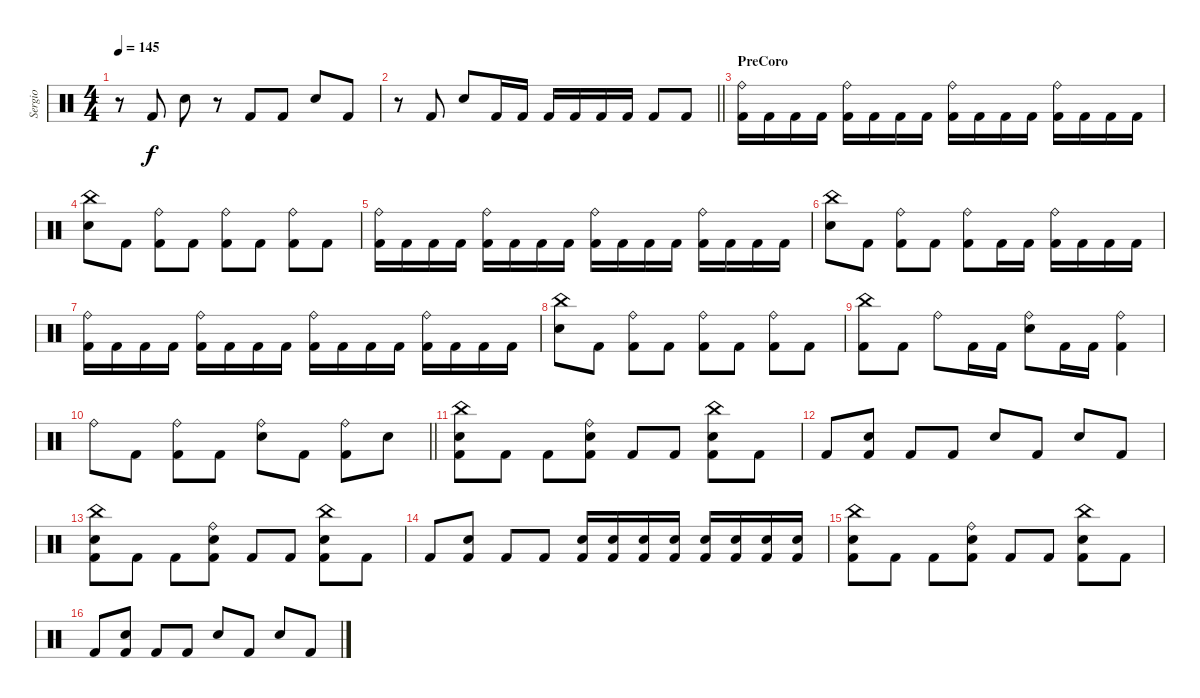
\track ("Sergio" "Sergio") {instrument percussion}
\staff {score}
\articulation defaults
\ts (4 4)
\tempo 145
\clef neutral
\ks c
r.8{dy f} "Kick (hit) 2".8 "Electric Snare (hit)".8 r.8 "Kick (hit) 2".8 "Kick (hit) 2".8 "Electric Snare (hit)".8 "Kick (hit) 2".8 |
\barLineRight lightlight
r.8 "Kick (hit) 2".8 "Electric Snare (hit)".8 "Kick (hit) 2".16 "Kick (hit) 2".16 "Kick (hit) 2".16 "Kick (hit) 2".16 "Kick (hit) 2".16 "Kick (hit) 2".16 "Kick (hit) 2".8 "Kick (hit) 2".8 |
\section ("" "PreCoro")
("Ride (bell)" "Kick (hit) 2").16 "Kick (hit) 2".16 "Kick (hit) 2".16 "Kick (hit) 2".16 ("Ride (bell)" "Kick (hit) 2").16 "Kick (hit) 2".16 "Kick (hit) 2".16 "Kick (hit) 2".16 ("Ride (bell)" "Kick (hit) 2").16 "Kick (hit) 2".16 "Kick (hit) 2".16 "Kick (hit) 2".16 ("Ride (bell)" "Kick (hit) 2").16 "Kick (hit) 2".16 "Kick (hit) 2".16 "Kick (hit) 2".16 |
("China (hit)" "Electric Snare (hit)").8 "Kick (hit) 2".8 ("Ride (bell)" "Kick (hit) 2").8 "Kick (hit) 2".8 ("Ride (bell)" "Kick (hit) 2").8 "Kick (hit) 2".8 ("Ride (bell)" "Kick (hit) 2").8 "Kick (hit) 2".8 |
("Ride (bell)" "Kick (hit) 2").16 "Kick (hit) 2".16 "Kick (hit) 2".16 "Kick (hit) 2".16 ("Ride (bell)" "Kick (hit) 2").16 "Kick (hit) 2".16 "Kick (hit) 2".16 "Kick (hit) 2".16 ("Ride (bell)" "Kick (hit) 2").16 "Kick (hit) 2".16 "Kick (hit) 2".16 "Kick (hit) 2".16 ("Ride (bell)" "Kick (hit) 2").16 "Kick (hit) 2".16 "Kick (hit) 2".16 "Kick (hit) 2".16 |
("China (hit)" "Electric Snare (hit)").8 "Kick (hit) 2".8 ("Ride (bell)" "Kick (hit) 2").8 "Kick (hit) 2".8 ("Ride (bell)" "Kick (hit) 2").8 "Kick (hit) 2".16 "Kick (hit) 2".16 ("Ride (bell)" "Kick (hit) 2").16 "Kick (hit) 2".16 "Kick (hit) 2".16 "Kick (hit) 2".16 |
("Ride (bell)" "Kick (hit) 2").16 "Kick (hit) 2".16 "Kick (hit) 2".16 "Kick (hit) 2".16 ("Ride (bell)" "Kick (hit) 2").16 "Kick (hit) 2".16 "Kick (hit) 2".16 "Kick (hit) 2".16 ("Ride (bell)" "Kick (hit) 2").16 "Kick (hit) 2".16 "Kick (hit) 2".16 "Kick (hit) 2".16 ("Ride (bell)" "Kick (hit) 2").16 "Kick (hit) 2".16 "Kick (hit) 2".16 "Kick (hit) 2".16 |
("China (hit)" "Electric Snare (hit)").8 "Kick (hit) 2".8 ("Ride (bell)" "Kick (hit) 2").8 "Kick (hit) 2".8 ("Ride (bell)" "Kick (hit) 2").8 "Kick (hit) 2".8 ("Ride (bell)" "Kick (hit) 2").8 "Kick (hit) 2".8 |
("China (hit)" "Kick (hit) 2").8 "Kick (hit) 2".8 "Ride (bell)".8 "Kick (hit) 2".16 "Kick (hit) 2".16 ("Ride (bell)" "Electric Snare (hit)").8 "Kick (hit) 2".16 "Kick (hit) 2".16 ("Ride (bell)" "Kick (hit) 2").4 |
\barLineRight lightlight "Ride (bell)".8 "Kick (hit) 2".8
("Ride (bell)" "Kick (hit) 2").8 "Kick (hit) 2".8 ("Ride (bell)" "Electric Snare (hit)").8 "Kick (hit) 2".8 ("Ride (bell)" "Kick (hit) 2").8 "Electric Snare (hit)".8 |
("China (hit)" "Electric Snare (hit)" "Kick (hit) 2").8 "Kick (hit) 2".8 "Kick (hit) 2".8 ("Ride (bell)" "Electric Snare (hit)" "Kick (hit) 2").8 "Kick (hit) 2".8 "Kick (hit) 2".8 ("China (hit)" "Electric Snare (hit)" "Kick (hit) 2").8 "Kick (hit) 2".8 |
"Kick (hit) 2".8 ("Electric Snare (hit)" "Kick (hit) 2").8 "Kick (hit) 2".8 "Kick (hit) 2".8 "Electric Snare (hit)".8 "Kick (hit) 2".8 "Electric Snare (hit)".8 "Kick (hit) 2".8 |
("China (hit)" "Electric Snare (hit)" "Kick (hit) 2").8 "Kick (hit) 2".8 "Kick (hit) 2".8 ("Ride (bell)" "Electric Snare (hit)" "Kick (hit) 2").8 "Kick (hit) 2".8 "Kick (hit) 2".8 ("China (hit)" "Electric Snare (hit)" "Kick (hit) 2").8 "Kick (hit) 2".8 |
"Kick (hit) 2".8 ("Electric Snare (hit)" "Kick (hit) 2").8 "Kick (hit) 2".8 "Kick (hit) 2".8 ("Electric Snare (hit)" "Kick (hit) 2").16 ("Electric Snare (hit)" "Kick (hit) 2").16 ("Electric Snare (hit)" "Kick (hit) 2").16 ("Electric Snare (hit)" "Kick (hit) 2").16 ("Electric Snare (hit)" "Kick (hit) 2").16 ("Electric Snare (hit)" "Kick (hit) 2").16 ("Electric Snare (hit)" "Kick (hit) 2").16 ("Electric Snare (hit)" "Kick (hit) 2").16 |
("China (hit)" "Electric Snare (hit)" "Kick (hit) 2").8 "Kick (hit) 2".8 "Kick (hit) 2".8 ("Ride (bell)" "Electric Snare (hit)" "Kick (hit) 2").8 "Kick (hit) 2".8 "Kick (hit) 2".8 ("China (hit)" "Electric Snare (hit)" "Kick (hit) 2").8 "Kick (hit) 2".8 |
"Kick (hit) 2".8 ("Electric Snare (hit)" "Kick (hit) 2").8 "Kick (hit) 2".8 "Kick (hit) 2".8 "Electric Snare (hit)".8 "Kick (hit) 2".8 "Electric Snare (hit)".8 "Kick (hit) 2".8
